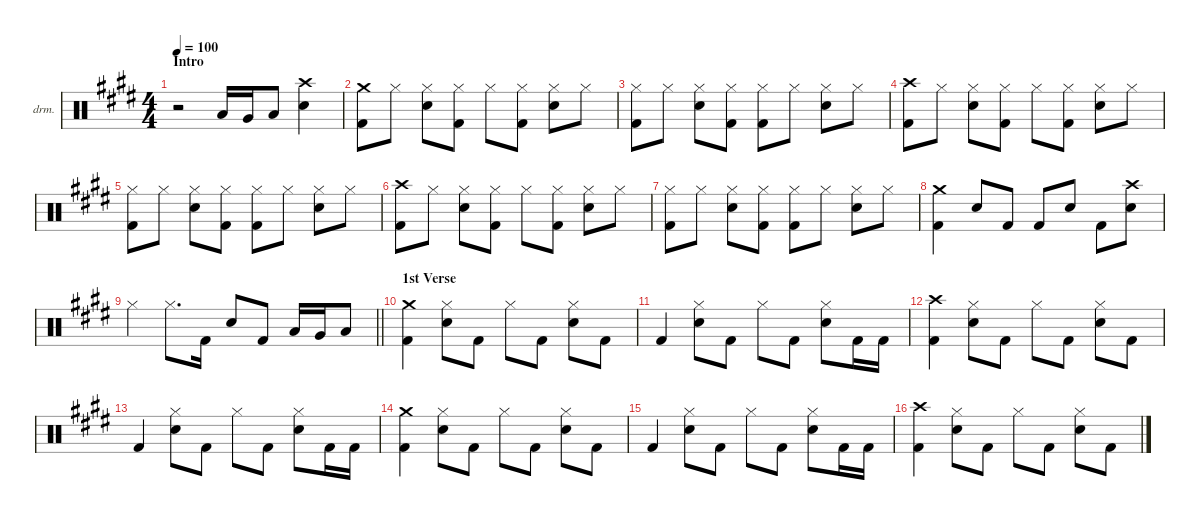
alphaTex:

\defaultSystemsLayout 4
\hideDynamics
\bracketExtendMode nobrackets
\firstSystemTrackNameOrientation horizontal
\otherSystemsTrackNameOrientation horizontal
\track ("Percussion" "drm.") {instrument percussion}
\staff {score}
\articulation defaults
\ts (4 4)
\beaming (8 2 2 2 2)
\section ("" "Intro")
\tempo 100
\clef neutral
\ks c#minor
r.2{dy f} "Low Tom (hit)"{acc forcenatural}.16 "Very Low Tom (hit)"{acc forcenatural}.16 "Low Floor Tom (hit)"{acc forcenatural}.8 ("Crash high (hit)"{acc forcenatural} "Snare (hit) 2"{acc forcenatural}).4 |
("Crash medium (hit)"{acc forcenatural} "Kick (hit) 2"{acc forcenatural}).8 "Hi-Hat (closed)"{acc forcenatural}.8 ("Hi-Hat (closed)"{acc forcenatural} "Snare (hit) 2"{acc forcenatural}).8 ("Hi-Hat (closed)"{acc forcenatural} "Kick (hit) 2"{acc forcenatural}).8 "Hi-Hat (closed)"{acc forcenatural}.8 ("Hi-Hat (closed)"{acc forcenatural} "Kick (hit) 2"{acc forcenatural}).8 ("Hi-Hat (closed)"{acc forcenatural} "Snare (hit) 2"{acc forcenatural}).8 "Hi-Hat (closed)"{acc forcenatural}.8 |
("Hi-Hat (closed)"{acc forcenatural} "Kick (hit) 2"{acc forcenatural}).8 "Hi-Hat (closed)"{acc forcenatural}.8 ("Hi-Hat (closed)"{acc forcenatural} "Snare (hit) 2"{acc forcenatural}).8 ("Hi-Hat (closed)"{acc forcenatural} "Kick (hit) 2"{acc forcenatural}).8 ("Hi-Hat (closed)"{acc forcenatural} "Kick (hit) 2"{acc forcenatural}).8 "Hi-Hat (closed)"{acc forcenatural}.8 ("Hi-Hat (closed)"{acc forcenatural} "Snare (hit) 2"{acc forcenatural}).8 "Hi-Hat (closed)"{acc forcenatural}.8 |
("Crash high (hit)"{acc forcenatural} "Kick (hit) 2"{acc forcenatural}).8 "Hi-Hat (closed)"{acc forcenatural}.8 ("Hi-Hat (closed)"{acc forcenatural} "Snare (hit) 2"{acc forcenatural}).8 ("Hi-Hat (closed)"{acc forcenatural} "Kick (hit) 2"{acc forcenatural}).8 "Hi-Hat (closed)"{acc forcenatural}.8 ("Hi-Hat (closed)"{acc forcenatural} "Kick (hit) 2"{acc forcenatural}).8 ("Hi-Hat (closed)"{acc forcenatural} "Snare (hit) 2"{acc forcenatural}).8 "Hi-Hat (closed)"{acc forcenatural}.8 |
("Hi-Hat (closed)"{acc forcenatural} "Kick (hit) 2"{acc forcenatural}).8 "Hi-Hat (closed)"{acc forcenatural}.8 ("Hi-Hat (closed)"{acc forcenatural} "Snare (hit) 2"{acc forcenatural}).8 ("Hi-Hat (closed)"{acc forcenatural} "Kick (hit) 2"{acc forcenatural}).8 ("Hi-Hat (closed)"{acc forcenatural} "Kick (hit) 2"{acc forcenatural}).8 "Hi-Hat (closed)"{acc forcenatural}.8 ("Hi-Hat (closed)"{acc forcenatural} "Snare (hit) 2"{acc forcenatural}).8 "Hi-Hat (closed)"{acc forcenatural}.8 |
("Crash high (hit)"{acc forcenatural} "Kick (hit) 2"{acc forcenatural}).8 "Hi-Hat (closed)"{acc forcenatural}.8 ("Hi-Hat (closed)"{acc forcenatural} "Snare (hit) 2"{acc forcenatural}).8 ("Hi-Hat (closed)"{acc forcenatural} "Kick (hit) 2"{acc forcenatural}).8 "Hi-Hat (closed)"{acc forcenatural}.8 ("Hi-Hat (closed)"{acc forcenatural} "Kick (hit) 2"{acc forcenatural}).8 ("Hi-Hat (closed)"{acc forcenatural} "Snare (hit) 2"{acc forcenatural}).8 "Hi-Hat (closed)"{acc forcenatural}.8 |
("Hi-Hat (closed)"{acc forcenatural} "Kick (hit) 2"{acc forcenatural}).8 "Hi-Hat (closed)"{acc forcenatural}.8 ("Hi-Hat (closed)"{acc forcenatural} "Snare (hit) 2"{acc forcenatural}).8 ("Hi-Hat (closed)"{acc forcenatural} "Kick (hit) 2"{acc forcenatural}).8 ("Hi-Hat (closed)"{acc forcenatural} "Kick (hit) 2"{acc forcenatural}).8 "Hi-Hat (closed)"{acc forcenatural}.8 ("Hi-Hat (closed)"{acc forcenatural} "Snare (hit) 2"{acc forcenatural}).8 "Hi-Hat (closed)"{acc forcenatural}.8 |
("Crash medium (hit)"{acc forcenatural} "Kick (hit) 2"{acc forcenatural}).4 "Snare (hit) 2"{acc forcenatural}.8 "Kick (hit) 2"{acc forcenatural}.8 "Kick (hit) 2"{acc forcenatural}.8 "Snare (hit) 2"{acc forcenatural}.8 "Kick (hit) 2"{acc forcenatural}.8 ("Crash high (hit)"{acc forcenatural} "Snare (hit) 2"{acc forcenatural}).8 |
\barLineRight lightlight "Hi-Hat (closed)"{acc forcenatural}.4 "Hi-Hat (closed)"{acc forcenatural}.8{d} "Kick (hit) 2"{acc forcenatural}.16 "Snare (hit) 2"{acc forcenatural}.8 "Kick (hit) 2"{acc forcenatural}.8 "Low Tom (hit)"{acc forcenatural}.16 "Very Low Tom (hit)"{acc forcenatural}.16 "Low Floor Tom (hit)"{acc forcenatural}.8
|
\section ("" "1st Verse")
("Crash medium (hit)"{acc forcenatural} "Kick (hit) 2"{acc forcenatural}).4 ("Hi-Hat (closed)"{acc forcenatural} "Snare (hit) 2"{acc forcenatural}).8 "Kick (hit) 2"{acc forcenatural}.8 "Hi-Hat (closed)"{acc forcenatural}.8 "Kick (hit) 2"{acc forcenatural}.8 ("Hi-Hat (closed)"{acc forcenatural} "Snare (hit) 2"{acc forcenatural}).8 "Kick (hit) 2"{acc forcenatural}.8 |
"Kick (hit) 2"{acc forcenatural}.4 ("Hi-Hat (closed)"{acc forcenatural} "Snare (hit) 2"{acc forcenatural}).8 "Kick (hit) 2"{acc forcenatural}.8 "Hi-Hat (closed)"{acc forcenatural}.8 "Kick (hit) 2"{acc forcenatural}.8 ("Hi-Hat (closed)"{acc forcenatural} "Snare (hit) 2"{acc forcenatural}).8 "Kick (hit) 2"{acc forcenatural}.16 "Kick (hit) 2"{acc forcenatural}.16 |
("Crash high (hit)"{acc forcenatural} "Kick (hit) 2"{acc forcenatural}).4 ("Hi-Hat (closed)"{acc forcenatural} "Snare (hit) 2"{acc forcenatural}).8 "Kick (hit) 2"{acc forcenatural}.8 "Hi-Hat (closed)"{acc forcenatural}.8 "Kick (hit) 2"{acc forcenatural}.8 ("Hi-Hat (closed)"{acc forcenatural} "Snare (hit) 2"{acc forcenatural}).8 "Kick (hit) 2"{acc forcenatural}.8 |
"Kick (hit) 2"{acc forcenatural}.4 ("Hi-Hat (closed)"{acc forcenatural} "Snare (hit) 2"{acc forcenatural}).8 "Kick (hit) 2"{acc forcenatural}.8 "Hi-Hat (closed)"{acc forcenatural}.8 "Kick (hit) 2"{acc forcenatural}.8 ("Hi-Hat (closed)"{acc forcenatural} "Snare (hit) 2"{acc forcenatural}).8 "Kick (hit) 2"{acc forcenatural}.16 "Kick (hit) 2"{acc forcenatural}.16 |
("Crash medium (hit)"{acc forcenatural} "Kick (hit) 2"{acc forcenatural}).4 ("Hi-Hat (closed)"{acc forcenatural} "Snare (hit) 2"{acc forcenatural}).8 "Kick (hit) 2"{acc forcenatural}.8 "Hi-Hat (closed)"{acc forcenatural}.8 "Kick (hit) 2"{acc forcenatural}.8 ("Hi-Hat (closed)"{acc forcenatural} "Snare (hit) 2"{acc forcenatural}).8 "Kick (hit) 2"{acc forcenatural}.8 |
"Kick (hit) 2"{acc forcenatural}.4 ("Hi-Hat (closed)"{acc forcenatural} "Snare (hit) 2"{acc forcenatural}).8 "Kick (hit) 2"{acc forcenatural}.8 "Hi-Hat (closed)"{acc forcenatural}.8 "Kick (hit) 2"{acc forcenatural}.8 ("Hi-Hat (closed)"{acc forcenatural} "Snare (hit) 2"{acc forcenatural}).8 "Kick (hit) 2"{acc forcenatural}.16 "Kick (hit) 2"{acc forcenatural}.16 |
("Crash high (hit)"{acc forcenatural} "Kick (hit) 2"{acc forcenatural}).4 ("Hi-Hat (closed)"{acc forcenatural} "Snare (hit) 2"{acc forcenatural}).8 "Kick (hit) 2"{acc forcenatural}.8 "Hi-Hat (closed)"{acc forcenatural}.8 "Kick (hit) 2"{acc forcenatural}.8 ("Hi-Hat (closed)"{acc forcenatural} "Snare (hit) 2"{acc forcenatural}).8 "Kick (hit) 2"{acc forcenatural}.8
